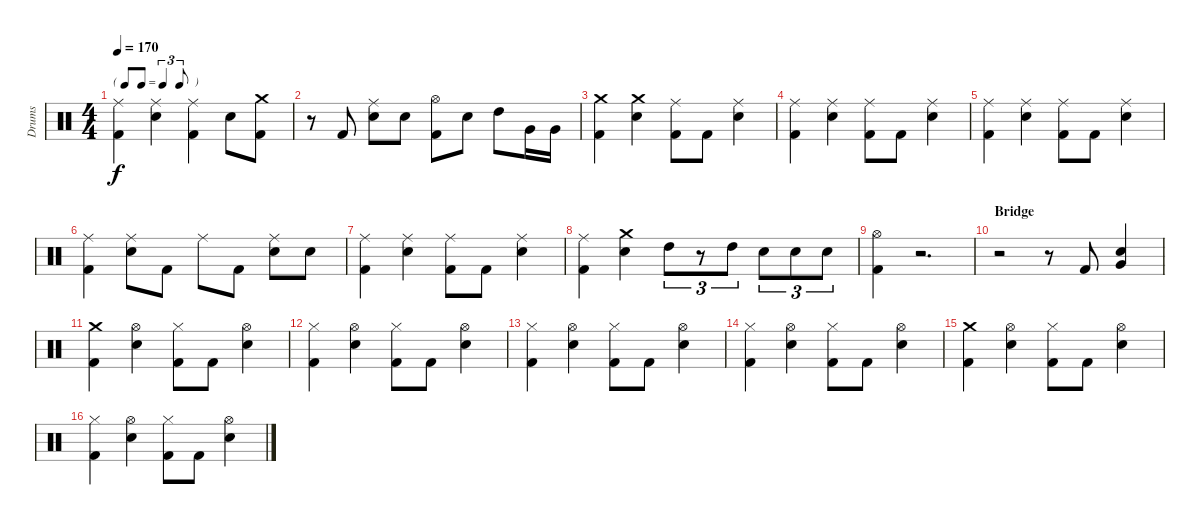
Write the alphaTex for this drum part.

\track ("Drums" "Drums") {instrument percussion}
\staff {score}
\articulation defaults
\ts (4 4)
\tf triplet8th
\tempo 170
\clef neutral
\ks c
("Ride (middle)" "Kick (hit) 2").4{dy f} ("Ride (middle)" "Snare (hit) 2").4 ("Ride (middle)" "Kick (hit) 2").4 "Snare (hit) 2".8 ("Crash medium (hit)" "Kick (hit) 2").8 |
r.8 "Kick (hit) 2".8 ("Ride (middle)" "Snare (hit) 2").8 "Snare (hit) 2".8 ("Hi-Hat (open)" "Kick (hit) 2").8 "Snare (hit) 2".8 "High Tom (hit)".8 "Very Low Tom (hit)".16 "Very Low Tom (hit)".16 |
("Crash medium (hit)" "Kick (hit) 2").4 ("Crash medium (hit)" "Snare (hit) 2").4 ("Ride (middle)" "Kick (hit) 2").8 "Kick (hit) 2".8 ("Ride (middle)" "Snare (hit) 2").4 |
("Ride (middle)" "Kick (hit) 2").4 ("Ride (middle)" "Snare (hit) 2").4 ("Ride (middle)" "Kick (hit) 2").8 "Kick (hit) 2".8 ("Ride (middle)" "Snare (hit) 2").4 |
("Ride (middle)" "Kick (hit) 2").4 ("Ride (middle)" "Snare (hit) 2").4 ("Ride (middle)" "Kick (hit) 2").8 "Kick (hit) 2".8 ("Ride (middle)" "Snare (hit) 2").4 |
("Ride (middle)" "Kick (hit) 2").4 ("Ride (middle)" "Snare (hit) 2").8 "Kick (hit) 2".8 "Ride (middle)".8 "Kick (hit) 2".8 ("Ride (middle)" "Snare (hit) 2").8 "Snare (hit) 2".8 |
("Ride (middle)" "Kick (hit) 2").4 ("Ride (middle)" "Snare (hit) 2").4 ("Ride (middle)" "Kick (hit) 2").8 "Kick (hit) 2".8 ("Ride (middle)" "Snare (hit) 2").4 |
("Ride (middle)" "Kick (hit) 2").4 ("Crash medium (hit)" "Snare (hit) 2").4 "High Tom (hit)".8{tu (3 2)} r.8{tu (3 2)} "High Tom (hit)".8{tu (3 2)} "Snare (hit) 2".8{tu (3 2)} "Snare (hit) 2".8{tu (3 2)} "Snare (hit) 2".8{tu (3 2)} |
("Hi-Hat (open)" "Kick (hit) 2").4 r.2{d} |
\section ("" "Bridge")
r.2 r.8 "Kick (hit) 2".8 ("Snare (hit) 2" "Very Low Tom (hit)").4 |
("Crash medium (hit)" "Kick (hit) 2").4 ("Hi-Hat (open)" "Snare (hit) 2").4 ("Hi-Hat (closed)" "Kick (hit) 2").8 "Kick (hit) 2".8 ("Hi-Hat (open)" "Snare (hit) 2").4 |
("Hi-Hat (closed)" "Kick (hit) 2").4 ("Hi-Hat (open)" "Snare (hit) 2").4 ("Hi-Hat (closed)" "Kick (hit) 2").8 "Kick (hit) 2".8 ("Hi-Hat (open)" "Snare (hit) 2").4 |
("Hi-Hat (closed)" "Kick (hit) 2").4 ("Hi-Hat (open)" "Snare (hit) 2").4 ("Hi-Hat (closed)" "Kick (hit) 2").8 "Kick (hit) 2".8 ("Hi-Hat (open)" "Snare (hit) 2").4 |
("Hi-Hat (closed)" "Kick (hit) 2").4 ("Hi-Hat (open)" "Snare (hit) 2").4 ("Hi-Hat (closed)" "Kick (hit) 2").8 "Kick (hit) 2".8 ("Hi-Hat (open)" "Snare (hit) 2").4 |
("Crash medium (hit)" "Kick (hit) 2").4 ("Hi-Hat (open)" "Snare (hit) 2").4 ("Hi-Hat (closed)" "Kick (hit) 2").8 "Kick (hit) 2".8 ("Hi-Hat (open)" "Snare (hit) 2").4 |
("Hi-Hat (closed)" "Kick (hit) 2").4 ("Hi-Hat (open)" "Snare (hit) 2").4 ("Hi-Hat (closed)" "Kick (hit) 2").8 "Kick (hit) 2".8 ("Hi-Hat (open)" "Snare (hit) 2").4
